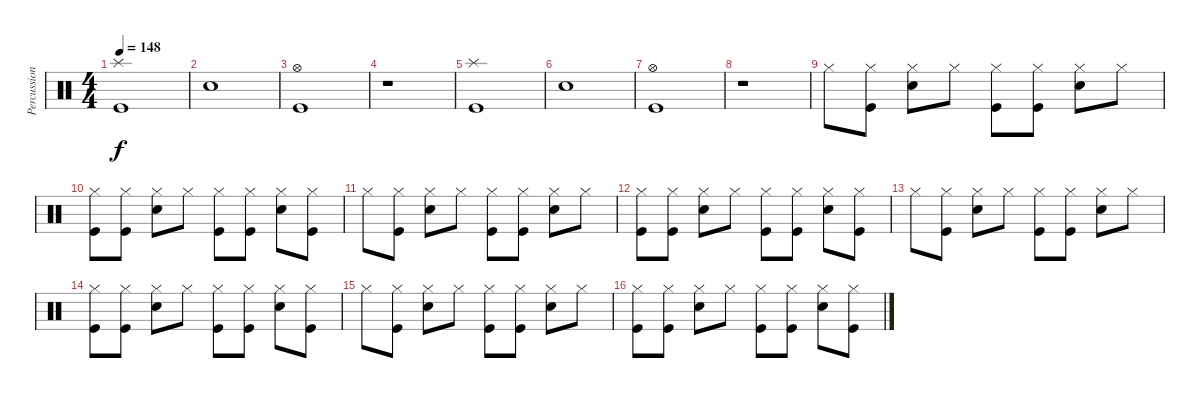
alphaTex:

\track ("Percussion" "Percussion") {instrument percussion}
\staff {score}
\articulation defaults
\ts (4 4)
\tempo 148
\clef neutral
\ks c
("Splash (hit)" "Kick (hit)").1{dy f} |
"Snare (hit) 2".1 |
("Hi-Hat (open)" "Kick (hit)").1 |
r.1 |
("Splash (hit)" "Kick (hit)").1 |
"Snare (hit) 2".1 |
("Hi-Hat (open)" "Kick (hit)").1 |
r.1 |
"Hi-Hat (closed)".8 ("Hi-Hat (closed)" "Kick (hit)").8 ("Hi-Hat (closed)" "Snare (hit) 2").8 "Hi-Hat (closed)".8 ("Hi-Hat (closed)" "Kick (hit)").8 ("Hi-Hat (closed)" "Kick (hit)").8 ("Hi-Hat (closed)" "Snare (hit) 2").8 "Hi-Hat (closed)".8 |
("Hi-Hat (closed)" "Kick (hit)").8 ("Hi-Hat (closed)" "Kick (hit)").8 ("Hi-Hat (closed)" "Snare (hit) 2").8 "Hi-Hat (closed)".8 ("Hi-Hat (closed)" "Kick (hit)").8 ("Hi-Hat (closed)" "Kick (hit)").8 ("Hi-Hat (closed)" "Snare (hit) 2").8 ("Hi-Hat (closed)" "Kick (hit)").8 |
"Hi-Hat (closed)".8 ("Hi-Hat (closed)" "Kick (hit)").8 ("Hi-Hat (closed)" "Snare (hit) 2").8 "Hi-Hat (closed)".8 ("Hi-Hat (closed)" "Kick (hit)").8 ("Hi-Hat (closed)" "Kick (hit)").8 ("Hi-Hat (closed)" "Snare (hit) 2").8 "Hi-Hat (closed)".8 |
("Hi-Hat (closed)" "Kick (hit)").8 ("Hi-Hat (closed)" "Kick (hit)").8 ("Hi-Hat (closed)" "Snare (hit) 2").8 "Hi-Hat (closed)".8 ("Hi-Hat (closed)" "Kick (hit)").8 ("Hi-Hat (closed)" "Kick (hit)").8 ("Hi-Hat (closed)" "Snare (hit) 2").8 ("Hi-Hat (closed)" "Kick (hit)").8 |
"Hi-Hat (closed)".8 ("Hi-Hat (closed)" "Kick (hit)").8 ("Hi-Hat (closed)" "Snare (hit) 2").8 "Hi-Hat (closed)".8 ("Hi-Hat (closed)" "Kick (hit)").8 ("Hi-Hat (closed)" "Kick (hit)").8 ("Hi-Hat (closed)" "Snare (hit) 2").8 "Hi-Hat (closed)".8 |
("Hi-Hat (closed)" "Kick (hit)").8 ("Hi-Hat (closed)" "Kick (hit)").8 ("Hi-Hat (closed)" "Snare (hit) 2").8 "Hi-Hat (closed)".8 ("Hi-Hat (closed)" "Kick (hit)").8 ("Hi-Hat (closed)" "Kick (hit)").8 ("Hi-Hat (closed)" "Snare (hit) 2").8 ("Hi-Hat (closed)" "Kick (hit)").8 |
"Hi-Hat (closed)".8 ("Hi-Hat (closed)" "Kick (hit)").8 ("Hi-Hat (closed)" "Snare (hit) 2").8 "Hi-Hat (closed)".8 ("Hi-Hat (closed)" "Kick (hit)").8 ("Hi-Hat (closed)" "Kick (hit)").8 ("Hi-Hat (closed)" "Snare (hit) 2").8 "Hi-Hat (closed)".8 |
("Hi-Hat (closed)" "Kick (hit)").8 ("Hi-Hat (closed)" "Kick (hit)").8 ("Hi-Hat (closed)" "Snare (hit) 2").8 "Hi-Hat (closed)".8 ("Hi-Hat (closed)" "Kick (hit)").8 ("Hi-Hat (closed)" "Kick (hit)").8 ("Hi-Hat (closed)" "Snare (hit) 2").8 ("Hi-Hat (closed)" "Kick (hit)").8
